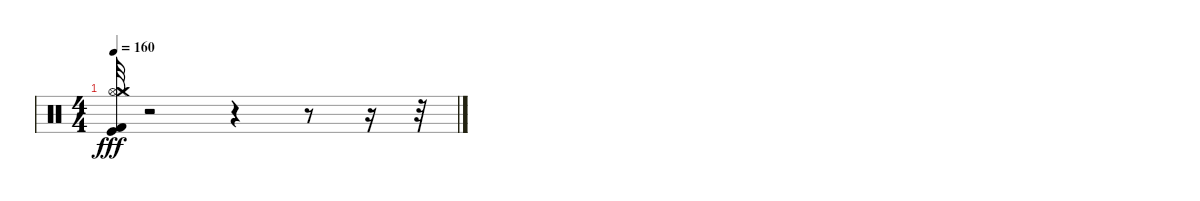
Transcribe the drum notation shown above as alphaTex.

\track "" {instrument percussion}
\staff {score}
\articulation defaults
\ts (4 4)
\tempo 160
\clef neutral
\ks c
("Kick (hit) 2" "Hi-Hat (open)" "Crash medium (hit)" "Hi-Hat (closed)" "Kick (hit)").32{dy fff} r.2 r.4 r.8 r.16 r.32
